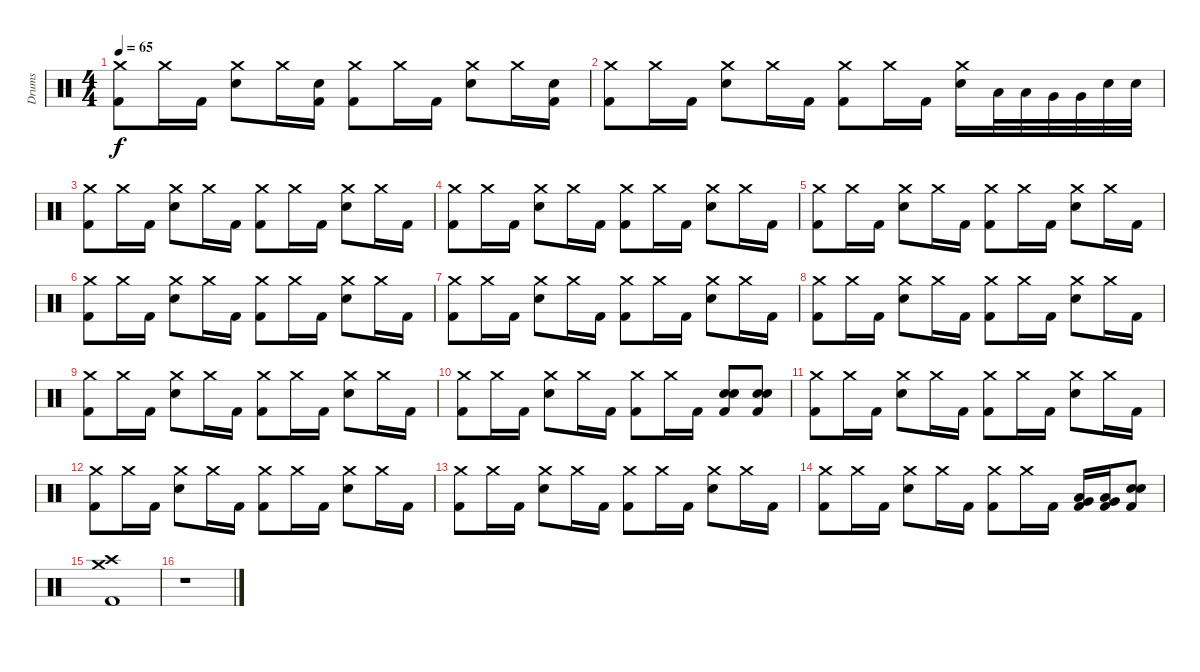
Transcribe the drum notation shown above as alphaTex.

\track ("Drums" "Drums") {instrument percussion}
\staff {score}
\articulation defaults
\ts (4 4)
\tempo 65
\clef neutral
\ks c
("Crash medium (hit)" "Kick (hit) 2").8{dy f} "Crash medium (hit)".16 "Kick (hit) 2".16 ("Crash medium (hit)" "Electric Snare (hit)").8 "Crash medium (hit)".16 ("Electric Snare (hit)" "Kick (hit) 2").16 ("Crash medium (hit)" "Kick (hit) 2").8 "Crash medium (hit)".16 "Kick (hit) 2".16 ("Crash medium (hit)" "Electric Snare (hit)").8 "Crash medium (hit)".16 ("Electric Snare (hit)" "Kick (hit) 2").16 |
("Crash medium (hit)" "Kick (hit) 2").8 "Crash medium (hit)".16 "Kick (hit) 2".16 ("Crash medium (hit)" "Electric Snare (hit)").8 "Crash medium (hit)".16 "Kick (hit) 2".16 ("Crash medium (hit)" "Kick (hit) 2").8 "Crash medium (hit)".16 "Kick (hit) 2".16 ("Crash medium (hit)" "Electric Snare (hit)").16 "Low Tom (hit)".32 "Low Tom (hit)".32 "Very Low Tom (hit)".32 "Very Low Tom (hit)".32 "Electric Snare (hit)".32 "Electric Snare (hit)".32 |
("Crash medium (hit)" "Kick (hit) 2").8 "Crash medium (hit)".16 "Kick (hit) 2".16 ("Crash medium (hit)" "Electric Snare (hit)").8 "Crash medium (hit)".16 "Kick (hit) 2".16 ("Crash medium (hit)" "Kick (hit) 2").8 "Crash medium (hit)".16 "Kick (hit) 2".16 ("Crash medium (hit)" "Electric Snare (hit)").8 "Crash medium (hit)".16 "Kick (hit) 2".16 |
("Crash medium (hit)" "Kick (hit) 2").8 "Crash medium (hit)".16 "Kick (hit) 2".16 ("Crash medium (hit)" "Electric Snare (hit)").8 "Crash medium (hit)".16 "Kick (hit) 2".16 ("Crash medium (hit)" "Kick (hit) 2").8 "Crash medium (hit)".16 "Kick (hit) 2".16 ("Crash medium (hit)" "Electric Snare (hit)").8 "Crash medium (hit)".16 "Kick (hit) 2".16 |
("Crash medium (hit)" "Kick (hit) 2").8 "Crash medium (hit)".16 "Kick (hit) 2".16 ("Crash medium (hit)" "Electric Snare (hit)").8 "Crash medium (hit)".16 "Kick (hit) 2".16 ("Crash medium (hit)" "Kick (hit) 2").8 "Crash medium (hit)".16 "Kick (hit) 2".16 ("Crash medium (hit)" "Electric Snare (hit)").8 "Crash medium (hit)".16 "Kick (hit) 2".16 |
("Crash medium (hit)" "Kick (hit) 2").8 "Crash medium (hit)".16 "Kick (hit) 2".16 ("Crash medium (hit)" "Electric Snare (hit)").8 "Crash medium (hit)".16 "Kick (hit) 2".16 ("Crash medium (hit)" "Kick (hit) 2").8 "Crash medium (hit)".16 "Kick (hit) 2".16 ("Crash medium (hit)" "Electric Snare (hit)").8 "Crash medium (hit)".16 "Kick (hit) 2".16 |
("Crash medium (hit)" "Kick (hit) 2").8 "Crash medium (hit)".16 "Kick (hit) 2".16 ("Crash medium (hit)" "Electric Snare (hit)").8 "Crash medium (hit)".16 "Kick (hit) 2".16 ("Crash medium (hit)" "Kick (hit) 2").8 "Crash medium (hit)".16 "Kick (hit) 2".16 ("Crash medium (hit)" "Electric Snare (hit)").8 "Crash medium (hit)".16 "Kick (hit) 2".16 |
("Crash medium (hit)" "Kick (hit) 2").8 "Crash medium (hit)".16 "Kick (hit) 2".16 ("Crash medium (hit)" "Electric Snare (hit)").8 "Crash medium (hit)".16 "Kick (hit) 2".16 ("Crash medium (hit)" "Kick (hit) 2").8 "Crash medium (hit)".16 "Kick (hit) 2".16 ("Crash medium (hit)" "Electric Snare (hit)").8 "Crash medium (hit)".16 "Kick (hit) 2".16 |
("Crash medium (hit)" "Kick (hit) 2").8 "Crash medium (hit)".16 "Kick (hit) 2".16 ("Crash medium (hit)" "Electric Snare (hit)").8 "Crash medium (hit)".16 "Kick (hit) 2".16 ("Crash medium (hit)" "Kick (hit) 2").8 "Crash medium (hit)".16 "Kick (hit) 2".16 ("Crash medium (hit)" "Electric Snare (hit)").8 "Crash medium (hit)".16 "Kick (hit) 2".16 |
("Crash medium (hit)" "Kick (hit) 2").8 "Crash medium (hit)".16 "Kick (hit) 2".16 ("Crash medium (hit)" "Electric Snare (hit)").8 "Crash medium (hit)".16 "Kick (hit) 2".16 ("Crash medium (hit)" "Kick (hit) 2").8 "Crash medium (hit)".16 "Kick (hit) 2".16 ("Electric Snare (hit)" "Electric Snare (hit)" "Kick (hit) 2").8 ("Electric Snare (hit)" "Electric Snare (hit)" "Kick (hit) 2").8 |
("Crash medium (hit)" "Kick (hit) 2").8 "Crash medium (hit)".16 "Kick (hit) 2".16 ("Crash medium (hit)" "Electric Snare (hit)").8 "Crash medium (hit)".16 "Kick (hit) 2".16 ("Crash medium (hit)" "Kick (hit) 2").8 "Crash medium (hit)".16 "Kick (hit) 2".16 ("Crash medium (hit)" "Electric Snare (hit)").8 "Crash medium (hit)".16 "Kick (hit) 2".16 |
("Crash medium (hit)" "Kick (hit) 2").8 "Crash medium (hit)".16 "Kick (hit) 2".16 ("Crash medium (hit)" "Electric Snare (hit)").8 "Crash medium (hit)".16 "Kick (hit) 2".16 ("Crash medium (hit)" "Kick (hit) 2").8 "Crash medium (hit)".16 "Kick (hit) 2".16 ("Crash medium (hit)" "Electric Snare (hit)").8 "Crash medium (hit)".16 "Kick (hit) 2".16 |
("Crash medium (hit)" "Kick (hit) 2").8 "Crash medium (hit)".16 "Kick (hit) 2".16 ("Crash medium (hit)" "Electric Snare (hit)").8 "Crash medium (hit)".16 "Kick (hit) 2".16 ("Crash medium (hit)" "Kick (hit) 2").8 "Crash medium (hit)".16 "Kick (hit) 2".16 ("Crash medium (hit)" "Electric Snare (hit)").8 "Crash medium (hit)".16 "Kick (hit) 2".16 |
("Crash medium (hit)" "Kick (hit) 2").8 "Crash medium (hit)".16 "Kick (hit) 2".16 ("Crash medium (hit)" "Electric Snare (hit)").8 "Crash medium (hit)".16 "Kick (hit) 2".16 ("Crash medium (hit)" "Kick (hit) 2").8 "Crash medium (hit)".16 "Kick (hit) 2".16 ("Low Tom (hit)" "Very Low Tom (hit)" "Kick (hit) 2").16 ("Low Tom (hit)" "Very Low Tom (hit)" "Kick (hit) 2").16 ("Electric Snare (hit)" "Electric Snare (hit)" "Kick (hit) 2").8 |
("Crash medium (hit)" "Crash high (hit)" "Kick (hit) 2").1 |
r.1
